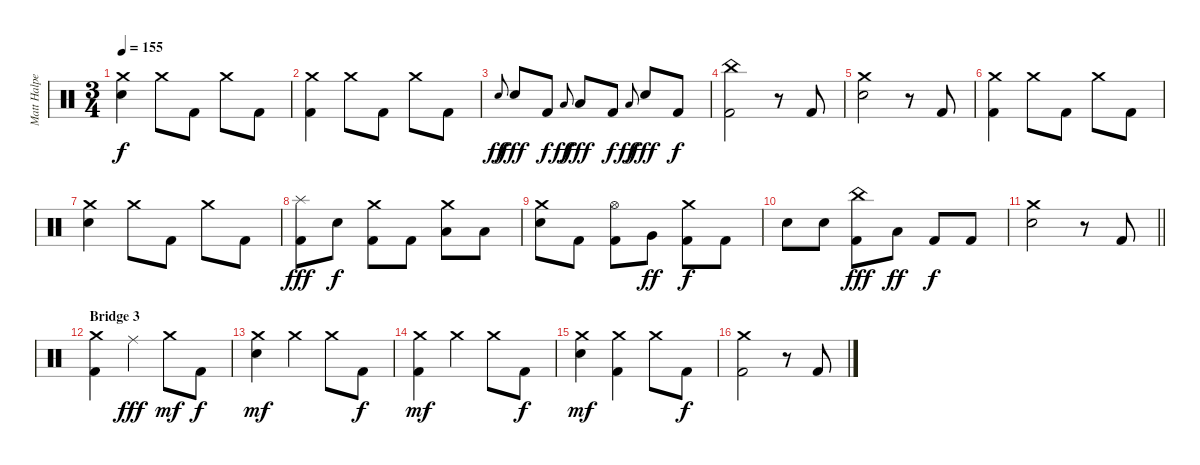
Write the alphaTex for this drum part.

\track ("Matt Halpern - Drums" "Matt Halpe") {instrument percussion}
\staff {score}
\articulation defaults
\ts (3 4)
\tempo 155
\clef neutral
\ks c
("Crash medium (hit)" "Electric Snare (hit)").4{dy f} "Crash medium (hit)".8 "Kick (hit) 2".8 "Crash medium (hit)".8 "Kick (hit) 2".8 |
("Crash medium (hit)" "Kick (hit) 2").4 "Crash medium (hit)".8 "Kick (hit) 2".8 "Crash medium (hit)".8 "Kick (hit) 2".8 |
"Electric Snare (hit)".8{gr onbeat dy ff} "Electric Snare (hit)".8{dy fff} "Kick (hit) 2".8{dy f} "Low Floor Tom (hit)".8{gr onbeat dy ff} "Low Floor Tom (hit)".8{dy fff} "Kick (hit) 2".8{dy f} "Low Floor Tom (hit)".8{gr onbeat dy ff} "Electric Snare (hit)".8{dy fff} "Kick (hit) 2".8{dy f} |
("China (hit)" "Kick (hit) 2").2 r.8 "Kick (hit) 2".8 |
("Crash medium (hit)" "Electric Snare (hit)").2 r.8 "Kick (hit) 2".8 |
("Crash medium (hit)" "Kick (hit) 2").4 "Crash medium (hit)".8 "Kick (hit) 2".8 "Crash medium (hit)".8 "Kick (hit) 2".8 |
("Crash medium (hit)" "Electric Snare (hit)").4 "Crash medium (hit)".8 "Kick (hit) 2".8 "Crash medium (hit)".8 "Kick (hit) 2".8 |
("Splash (hit)" "Kick (hit) 2").8{dy fff} "Electric Snare (hit)".8{dy f} ("Crash medium (hit)" "Kick (hit) 2").8 "Kick (hit) 2".8 ("Crash medium (hit)" "Low Tom (hit)").8 "Low Tom (hit)".8 |
("Crash medium (hit)" "Electric Snare (hit)").8 "Kick (hit) 2".8 ("Hi-Hat (open)" "Kick (hit) 2").8 "Very Low Tom (hit)".8{dy ff} ("Crash medium (hit)" "Kick (hit) 2").8{dy f} "Kick (hit) 2".8 |
"Electric Snare (hit)".8 "Electric Snare (hit)".8 ("China (hit)" "Kick (hit) 2").8{dy fff} "Low Tom (hit)".8{dy ff} "Kick (hit) 2".8{dy f} "Kick (hit) 2".8 |
\barLineRight lightlight
("Crash medium (hit)" "Electric Snare (hit)").2 r.8 "Kick (hit) 2".8 |
\section ("" "Bridge 3")
("Crash medium (hit)" "Kick (hit) 2").4 "Ride (middle)".4{dy fff} "Crash medium (hit)".8{dy mf} "Kick (hit) 2".8{dy f} |
("Crash medium (hit)" "Electric Snare (hit)").4{dy mf} "Crash medium (hit)".4 "Crash medium (hit)".8 "Kick (hit) 2".8{dy f} |
("Crash medium (hit)" "Kick (hit) 2").4{dy mf} "Crash medium (hit)".4 "Crash medium (hit)".8 "Kick (hit) 2".8{dy f} |
("Crash medium (hit)" "Electric Snare (hit)").4{dy mf} ("Crash medium (hit)" "Kick (hit) 2").4 "Crash medium (hit)".8 "Kick (hit) 2".8{dy f} |
("Crash medium (hit)" "Kick (hit) 2").2 r.8 "Kick (hit) 2".8
